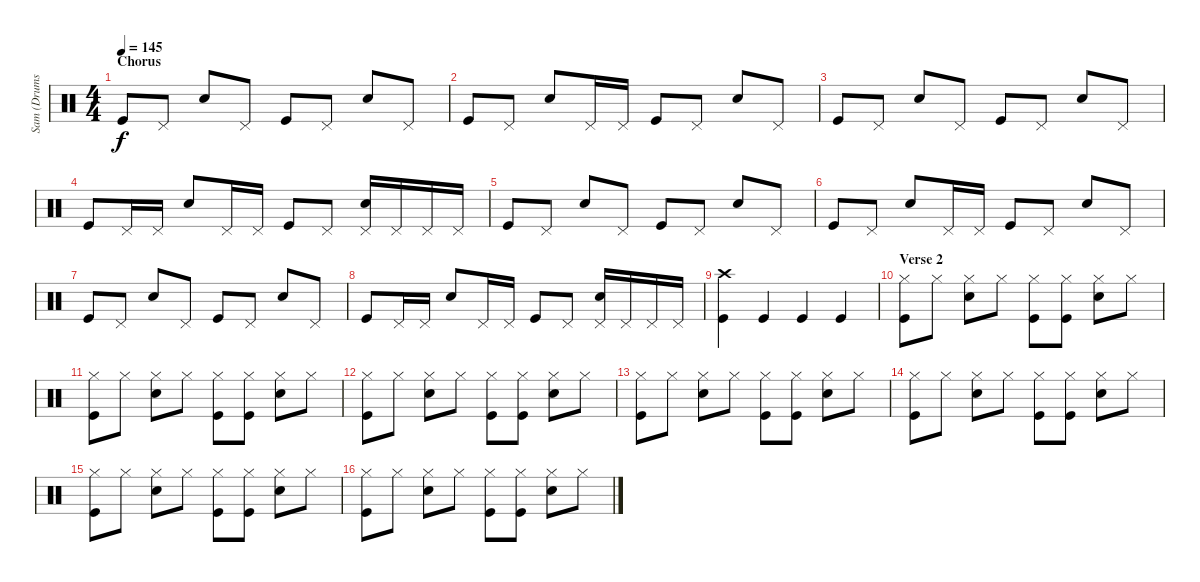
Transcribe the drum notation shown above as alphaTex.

\track ("Sam (Drums)" "Sam (Drums") {instrument percussion}
\staff {score}
\articulation defaults
\ts (4 4)
\section ("" "Chorus")
\tempo 145
\clef neutral
\ks c "Kick (hit)".8{dy f} "Pedal Hi-Hat (hit)".8 "Snare (hit) 2".8 "Pedal Hi-Hat (hit)".8 "Kick (hit)".8 "Pedal Hi-Hat (hit)".8 "Snare (hit) 2".8 "Pedal Hi-Hat (hit)".8
|
"Kick (hit)".8 "Pedal Hi-Hat (hit)".8 "Snare (hit) 2".8 "Pedal Hi-Hat (hit)".16 "Pedal Hi-Hat (hit)".16 "Kick (hit)".8 "Pedal Hi-Hat (hit)".8 "Snare (hit) 2".8 "Pedal Hi-Hat (hit)".8 |
"Kick (hit)".8 "Pedal Hi-Hat (hit)".8 "Snare (hit) 2".8 "Pedal Hi-Hat (hit)".8 "Kick (hit)".8 "Pedal Hi-Hat (hit)".8 "Snare (hit) 2".8 "Pedal Hi-Hat (hit)".8 |
"Kick (hit)".8 "Pedal Hi-Hat (hit)".16 "Pedal Hi-Hat (hit)".16 "Snare (hit) 2".8 "Pedal Hi-Hat (hit)".16 "Pedal Hi-Hat (hit)".16 "Kick (hit)".8 "Pedal Hi-Hat (hit)".8 ("Pedal Hi-Hat (hit)" "Snare (hit) 2").16 "Pedal Hi-Hat (hit)".16 "Pedal Hi-Hat (hit)".16 "Pedal Hi-Hat (hit)".16 |
"Kick (hit)".8 "Pedal Hi-Hat (hit)".8 "Snare (hit) 2".8 "Pedal Hi-Hat (hit)".8 "Kick (hit)".8 "Pedal Hi-Hat (hit)".8 "Snare (hit) 2".8 "Pedal Hi-Hat (hit)".8 |
"Kick (hit)".8 "Pedal Hi-Hat (hit)".8 "Snare (hit) 2".8 "Pedal Hi-Hat (hit)".16 "Pedal Hi-Hat (hit)".16 "Kick (hit)".8 "Pedal Hi-Hat (hit)".8 "Snare (hit) 2".8 "Pedal Hi-Hat (hit)".8 |
"Kick (hit)".8 "Pedal Hi-Hat (hit)".8 "Snare (hit) 2".8 "Pedal Hi-Hat (hit)".8 "Kick (hit)".8 "Pedal Hi-Hat (hit)".8 "Snare (hit) 2".8 "Pedal Hi-Hat (hit)".8 |
"Kick (hit)".8 "Pedal Hi-Hat (hit)".16 "Pedal Hi-Hat (hit)".16 "Snare (hit) 2".8 "Pedal Hi-Hat (hit)".16 "Pedal Hi-Hat (hit)".16 "Kick (hit)".8 "Pedal Hi-Hat (hit)".8 ("Pedal Hi-Hat (hit)" "Snare (hit) 2").16 "Pedal Hi-Hat (hit)".16 "Pedal Hi-Hat (hit)".16 "Pedal Hi-Hat (hit)".16 |
("Crash high (hit)" "Kick (hit)").4 "Kick (hit)".4 "Kick (hit)".4 "Kick (hit)".4 |
\section ("" "Verse 2")
("Hi-Hat (closed)" "Kick (hit)").8 "Hi-Hat (closed)".8 ("Hi-Hat (closed)" "Snare (hit) 2").8 "Hi-Hat (closed)".8 ("Hi-Hat (closed)" "Kick (hit)").8 ("Hi-Hat (closed)" "Kick (hit)").8 ("Hi-Hat (closed)" "Snare (hit) 2").8 "Hi-Hat (closed)".8 |
("Hi-Hat (closed)" "Kick (hit)").8 "Hi-Hat (closed)".8 ("Hi-Hat (closed)" "Snare (hit) 2").8 "Hi-Hat (closed)".8 ("Hi-Hat (closed)" "Kick (hit)").8 ("Hi-Hat (closed)" "Kick (hit)").8 ("Hi-Hat (closed)" "Snare (hit) 2").8 "Hi-Hat (closed)".8 |
("Hi-Hat (closed)" "Kick (hit)").8 "Hi-Hat (closed)".8 ("Hi-Hat (closed)" "Snare (hit) 2").8 "Hi-Hat (closed)".8 ("Hi-Hat (closed)" "Kick (hit)").8 ("Hi-Hat (closed)" "Kick (hit)").8 ("Hi-Hat (closed)" "Snare (hit) 2").8 "Hi-Hat (closed)".8 |
("Hi-Hat (closed)" "Kick (hit)").8 "Hi-Hat (closed)".8 ("Hi-Hat (closed)" "Snare (hit) 2").8 "Hi-Hat (closed)".8 ("Hi-Hat (closed)" "Kick (hit)").8 ("Hi-Hat (closed)" "Kick (hit)").8 ("Hi-Hat (closed)" "Snare (hit) 2").8 "Hi-Hat (closed)".8 |
("Hi-Hat (closed)" "Kick (hit)").8 "Hi-Hat (closed)".8 ("Hi-Hat (closed)" "Snare (hit) 2").8 "Hi-Hat (closed)".8 ("Hi-Hat (closed)" "Kick (hit)").8 ("Hi-Hat (closed)" "Kick (hit)").8 ("Hi-Hat (closed)" "Snare (hit) 2").8 "Hi-Hat (closed)".8 |
("Hi-Hat (closed)" "Kick (hit)").8 "Hi-Hat (closed)".8 ("Hi-Hat (closed)" "Snare (hit) 2").8 "Hi-Hat (closed)".8 ("Hi-Hat (closed)" "Kick (hit)").8 ("Hi-Hat (closed)" "Kick (hit)").8 ("Hi-Hat (closed)" "Snare (hit) 2").8 "Hi-Hat (closed)".8 |
("Hi-Hat (closed)" "Kick (hit)").8 "Hi-Hat (closed)".8 ("Hi-Hat (closed)" "Snare (hit) 2").8 "Hi-Hat (closed)".8 ("Hi-Hat (closed)" "Kick (hit)").8 ("Hi-Hat (closed)" "Kick (hit)").8 ("Hi-Hat (closed)" "Snare (hit) 2").8 "Hi-Hat (closed)".8
